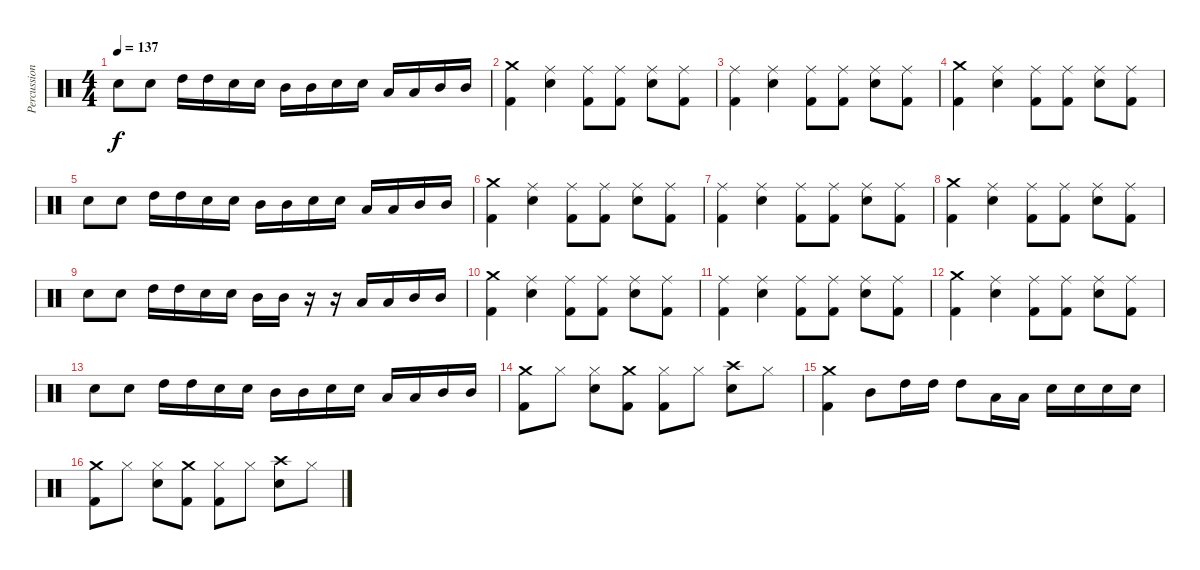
\track ("Percussions" "Percussion") {instrument percussion}
\staff {score}
\articulation defaults
\ts (4 4)
\tempo 137
\clef neutral
\ks c "Electric Snare (hit)".8{dy f} "Electric Snare (hit)".8 "High Tom (hit)".16 "High Tom (hit)".16 "Electric Snare (hit)".16 "Electric Snare (hit)".16 "Mid Tom (hit)".16 "Mid Tom (hit)".16 "Electric Snare (hit)".16 "Electric Snare (hit)".16 "Low Tom (hit)".16 "Low Tom (hit)".16 "Mid Tom (hit)".16 "Mid Tom (hit)".16
|
("Crash medium (hit)" "Kick (hit) 2").4 ("Ride (middle)" "Electric Snare (hit)").4 ("Ride (middle)" "Kick (hit) 2").8 ("Ride (middle)" "Kick (hit) 2").8 ("Ride (middle)" "Electric Snare (hit)").8 ("Ride (middle)" "Kick (hit) 2").8 |
("Ride (middle)" "Kick (hit) 2").4 ("Ride (middle)" "Electric Snare (hit)").4 ("Ride (middle)" "Kick (hit) 2").8 ("Ride (middle)" "Kick (hit) 2").8 ("Ride (middle)" "Electric Snare (hit)").8 ("Ride (middle)" "Kick (hit) 2").8 |
("Crash medium (hit)" "Kick (hit) 2").4 ("Ride (middle)" "Electric Snare (hit)").4 ("Ride (middle)" "Kick (hit) 2").8 ("Ride (middle)" "Kick (hit) 2").8 ("Ride (middle)" "Electric Snare (hit)").8 ("Ride (middle)" "Kick (hit) 2").8 |
"Electric Snare (hit)".8 "Electric Snare (hit)".8 "High Tom (hit)".16 "High Tom (hit)".16 "Electric Snare (hit)".16 "Electric Snare (hit)".16 "Mid Tom (hit)".16 "Mid Tom (hit)".16 "Electric Snare (hit)".16 "Electric Snare (hit)".16 "Low Tom (hit)".16 "Low Tom (hit)".16 "Mid Tom (hit)".16 "Mid Tom (hit)".16 |
("Crash medium (hit)" "Kick (hit) 2").4 ("Ride (middle)" "Electric Snare (hit)").4 ("Ride (middle)" "Kick (hit) 2").8 ("Ride (middle)" "Kick (hit) 2").8 ("Ride (middle)" "Electric Snare (hit)").8 ("Ride (middle)" "Kick (hit) 2").8 |
("Ride (middle)" "Kick (hit) 2").4 ("Ride (middle)" "Electric Snare (hit)").4 ("Ride (middle)" "Kick (hit) 2").8 ("Ride (middle)" "Kick (hit) 2").8 ("Ride (middle)" "Electric Snare (hit)").8 ("Ride (middle)" "Kick (hit) 2").8 |
("Crash medium (hit)" "Kick (hit) 2").4 ("Ride (middle)" "Electric Snare (hit)").4 ("Ride (middle)" "Kick (hit) 2").8 ("Ride (middle)" "Kick (hit) 2").8 ("Ride (middle)" "Electric Snare (hit)").8 ("Ride (middle)" "Kick (hit) 2").8 |
"Electric Snare (hit)".8 "Electric Snare (hit)".8 "High Tom (hit)".16 "High Tom (hit)".16 "Electric Snare (hit)".16 "Electric Snare (hit)".16 "Mid Tom (hit)".16 "Mid Tom (hit)".16 r.16 r.16 "Low Tom (hit)".16 "Low Tom (hit)".16 "Mid Tom (hit)".16 "Mid Tom (hit)".16 |
("Crash medium (hit)" "Kick (hit) 2").4 ("Ride (middle)" "Electric Snare (hit)").4 ("Ride (middle)" "Kick (hit) 2").8 ("Ride (middle)" "Kick (hit) 2").8 ("Ride (middle)" "Electric Snare (hit)").8 ("Ride (middle)" "Kick (hit) 2").8 |
("Ride (middle)" "Kick (hit) 2").4 ("Ride (middle)" "Electric Snare (hit)").4 ("Ride (middle)" "Kick (hit) 2").8 ("Ride (middle)" "Kick (hit) 2").8 ("Ride (middle)" "Electric Snare (hit)").8 ("Ride (middle)" "Kick (hit) 2").8 |
("Crash medium (hit)" "Kick (hit) 2").4 ("Ride (middle)" "Electric Snare (hit)").4 ("Ride (middle)" "Kick (hit) 2").8 ("Ride (middle)" "Kick (hit) 2").8 ("Ride (middle)" "Electric Snare (hit)").8 ("Ride (middle)" "Kick (hit) 2").8 |
"Electric Snare (hit)".8 "Electric Snare (hit)".8 "High Tom (hit)".16 "High Tom (hit)".16 "Electric Snare (hit)".16 "Electric Snare (hit)".16 "Mid Tom (hit)".16 "Mid Tom (hit)".16 "Electric Snare (hit)".16 "Electric Snare (hit)".16 "Low Tom (hit)".16 "Low Tom (hit)".16 "Mid Tom (hit)".16 "Mid Tom (hit)".16 |
("Crash medium (hit)" "Kick (hit) 2").8 "Hi-Hat (closed)".8 ("Hi-Hat (closed)" "Electric Snare (hit)").8 ("Crash medium (hit)" "Kick (hit) 2").8 ("Hi-Hat (closed)" "Kick (hit) 2").8 "Hi-Hat (closed)".8 ("Crash high (hit)" "Electric Snare (hit)").8 "Hi-Hat (closed)".8 |
("Crash medium (hit)" "Kick (hit) 2").4 "Mid Tom (hit)".8 "High Tom (hit)".16 "High Tom (hit)".16 "High Tom (hit)".8 "Low Tom (hit)".16 "Low Tom (hit)".16 "Electric Snare (hit)".16 "Electric Snare (hit)".16 "Electric Snare (hit)".16 "Electric Snare (hit)".16 |
("Crash medium (hit)" "Kick (hit) 2").8 "Hi-Hat (closed)".8 ("Hi-Hat (closed)" "Electric Snare (hit)").8 ("Crash medium (hit)" "Kick (hit) 2").8 ("Hi-Hat (closed)" "Kick (hit) 2").8 "Hi-Hat (closed)".8 ("Crash high (hit)" "Electric Snare (hit)").8 "Hi-Hat (closed)".8
